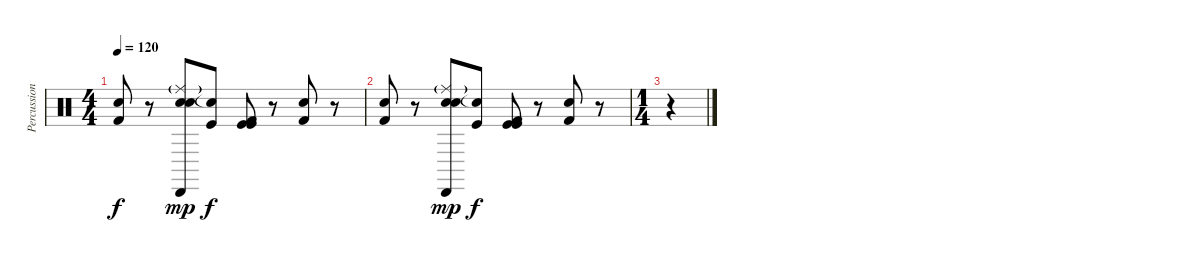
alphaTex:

\track ("Percussion" "Percussion") {instrument percussion}
\staff {score}
\articulation defaults
\ts (4 4)
\tempo 120
\clef neutral
\ks c
("Kick (hit) 2" "Snare (hit) 2").8{dy f} r.8 ("Ride (middle)"{g} "Snare (hit) 2" "Cabasa (hit)" "Snare (hit) 2").8{dy mp} ("Snare (hit)"{t} "Kick (hit)").8{dy f} ("Kick (hit)" "Kick (hit)" "Kick (hit) 2").8 r.8 ("Kick (hit) 2" "Snare (hit) 2").8 r.8 |
("Kick (hit) 2" "Snare (hit) 2").8 r.8 ("Ride (middle)"{g} "Snare (hit) 2" "Cabasa (hit)" "Snare (hit) 2").8{dy mp} ("Snare (hit)"{t} "Kick (hit)").8{dy f} ("Kick (hit)" "Kick (hit)" "Kick (hit) 2").8 r.8 ("Kick (hit) 2" "Snare (hit) 2").8 r.8 |
\ts (1 4)
r.4
